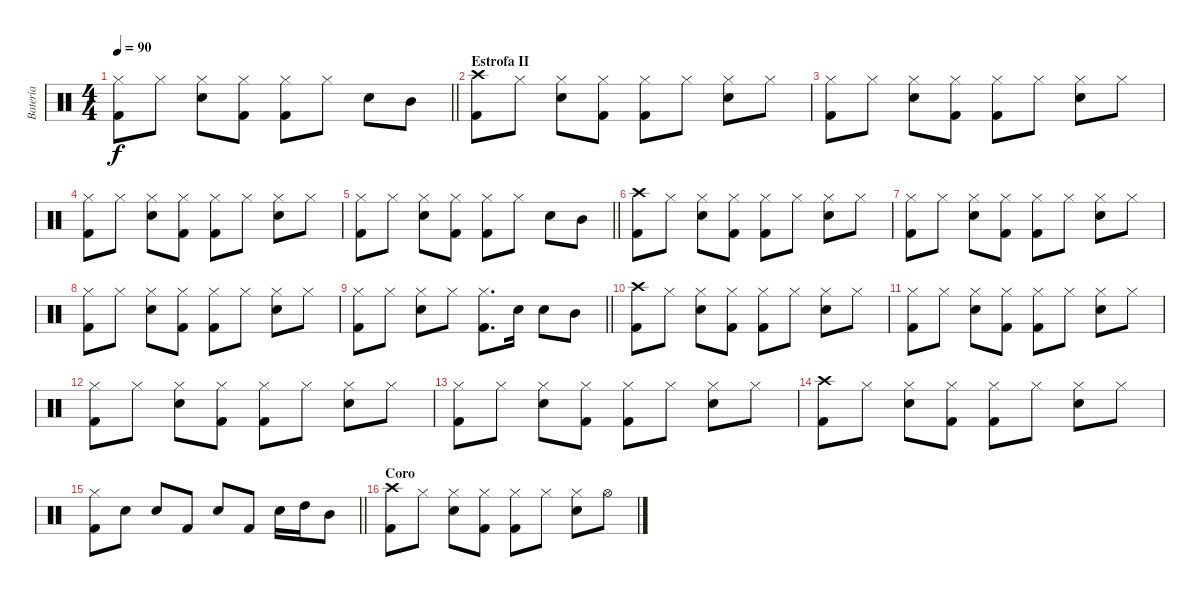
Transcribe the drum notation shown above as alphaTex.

\track ("Batería" "Batería") {instrument percussion}
\staff {score}
\articulation defaults
\ts (4 4)
\tempo 90
\clef neutral
\barLineRight lightlight
\ks c
("Kick (hit) 2" "Hi-Hat (closed)").8{dy f} "Hi-Hat (closed)".8 ("Electric Snare (hit)" "Hi-Hat (closed)").8 ("Kick (hit) 2" "Hi-Hat (closed)").8 ("Kick (hit) 2" "Hi-Hat (closed)").8 "Hi-Hat (closed)".8 "Electric Snare (hit)".8 "Mid Tom (hit)".8 |
\section ("" "Estrofa II")
("Kick (hit) 2" "Crash high (hit)").8 "Hi-Hat (closed)".8 ("Electric Snare (hit)" "Hi-Hat (closed)").8 ("Kick (hit) 2" "Hi-Hat (closed)").8 ("Kick (hit) 2" "Hi-Hat (closed)").8 "Hi-Hat (closed)".8 ("Electric Snare (hit)" "Hi-Hat (closed)").8 "Hi-Hat (closed)".8 |
("Kick (hit) 2" "Hi-Hat (closed)").8 "Hi-Hat (closed)".8 ("Electric Snare (hit)" "Hi-Hat (closed)").8 ("Kick (hit) 2" "Hi-Hat (closed)").8 ("Kick (hit) 2" "Hi-Hat (closed)").8 "Hi-Hat (closed)".8 ("Electric Snare (hit)" "Hi-Hat (closed)").8 "Hi-Hat (closed)".8 |
("Kick (hit) 2" "Hi-Hat (closed)").8 "Hi-Hat (closed)".8 ("Electric Snare (hit)" "Hi-Hat (closed)").8 ("Kick (hit) 2" "Hi-Hat (closed)").8 ("Kick (hit) 2" "Hi-Hat (closed)").8 "Hi-Hat (closed)".8 ("Electric Snare (hit)" "Hi-Hat (closed)").8 "Hi-Hat (closed)".8 |
\barLineRight lightlight
("Kick (hit) 2" "Hi-Hat (closed)").8 "Hi-Hat (closed)".8 ("Electric Snare (hit)" "Hi-Hat (closed)").8 ("Kick (hit) 2" "Hi-Hat (closed)").8 ("Kick (hit) 2" "Hi-Hat (closed)").8 "Hi-Hat (closed)".8 "Electric Snare (hit)".8 "Mid Tom (hit)".8 |
("Kick (hit) 2" "Crash high (hit)").8 "Hi-Hat (closed)".8 ("Electric Snare (hit)" "Hi-Hat (closed)").8 ("Kick (hit) 2" "Hi-Hat (closed)").8 ("Kick (hit) 2" "Hi-Hat (closed)").8 "Hi-Hat (closed)".8 ("Electric Snare (hit)" "Hi-Hat (closed)").8 "Hi-Hat (closed)".8 |
("Kick (hit) 2" "Hi-Hat (closed)").8 "Hi-Hat (closed)".8 ("Electric Snare (hit)" "Hi-Hat (closed)").8 ("Kick (hit) 2" "Hi-Hat (closed)").8 ("Kick (hit) 2" "Hi-Hat (closed)").8 "Hi-Hat (closed)".8 ("Electric Snare (hit)" "Hi-Hat (closed)").8 "Hi-Hat (closed)".8 |
("Kick (hit) 2" "Hi-Hat (closed)").8 "Hi-Hat (closed)".8 ("Electric Snare (hit)" "Hi-Hat (closed)").8 ("Kick (hit) 2" "Hi-Hat (closed)").8 ("Kick (hit) 2" "Hi-Hat (closed)").8 "Hi-Hat (closed)".8 ("Electric Snare (hit)" "Hi-Hat (closed)").8 "Hi-Hat (closed)".8 |
\barLineRight lightlight
("Kick (hit) 2" "Hi-Hat (closed)").8 "Hi-Hat (closed)".8 ("Electric Snare (hit)" "Hi-Hat (closed)").8 "Hi-Hat (closed)".8 ("Kick (hit) 2" "Hi-Hat (closed)").8{d} "Electric Snare (hit)".16 "Electric Snare (hit)".8 "Mid Tom (hit)".8 |
("Kick (hit) 2" "Crash high (hit)").8 "Hi-Hat (closed)".8 ("Electric Snare (hit)" "Hi-Hat (closed)").8 ("Kick (hit) 2" "Hi-Hat (closed)").8 ("Kick (hit) 2" "Hi-Hat (closed)").8 "Hi-Hat (closed)".8 ("Electric Snare (hit)" "Hi-Hat (closed)").8 "Hi-Hat (closed)".8 |
("Kick (hit) 2" "Hi-Hat (closed)").8 "Hi-Hat (closed)".8 ("Electric Snare (hit)" "Hi-Hat (closed)").8 ("Kick (hit) 2" "Hi-Hat (closed)").8 ("Kick (hit) 2" "Hi-Hat (closed)").8 "Hi-Hat (closed)".8 ("Electric Snare (hit)" "Hi-Hat (closed)").8 "Hi-Hat (closed)".8 |
("Kick (hit) 2" "Hi-Hat (closed)").8 "Hi-Hat (closed)".8 ("Electric Snare (hit)" "Hi-Hat (closed)").8 ("Kick (hit) 2" "Hi-Hat (closed)").8 ("Kick (hit) 2" "Hi-Hat (closed)").8 "Hi-Hat (closed)".8 ("Electric Snare (hit)" "Hi-Hat (closed)").8 "Hi-Hat (closed)".8 |
("Kick (hit) 2" "Hi-Hat (closed)").8 "Hi-Hat (closed)".8 ("Electric Snare (hit)" "Hi-Hat (closed)").8 ("Kick (hit) 2" "Hi-Hat (closed)").8 ("Kick (hit) 2" "Hi-Hat (closed)").8 "Hi-Hat (closed)".8 ("Electric Snare (hit)" "Hi-Hat (closed)").8 "Hi-Hat (closed)".8 |
("Kick (hit) 2" "Crash high (hit)").8 "Hi-Hat (closed)".8 ("Electric Snare (hit)" "Hi-Hat (closed)").8 ("Kick (hit) 2" "Hi-Hat (closed)").8 ("Kick (hit) 2" "Hi-Hat (closed)").8 "Hi-Hat (closed)".8 ("Electric Snare (hit)" "Hi-Hat (closed)").8 "Hi-Hat (closed)".8 |
\barLineRight lightlight
("Kick (hit) 2" "Hi-Hat (closed)").8 "Electric Snare (hit)".8 "Electric Snare (hit)".8 "Kick (hit) 2".8 "Electric Snare (hit)".8 "Kick (hit) 2".8 "Electric Snare (hit)".16 "High Tom (hit)".16 "Mid Tom (hit)".8 |
\section ("" "Coro")
("Kick (hit) 2" "Crash high (hit)").8 "Hi-Hat (closed)".8 ("Electric Snare (hit)" "Hi-Hat (closed)").8 ("Kick (hit) 2" "Hi-Hat (closed)").8 ("Kick (hit) 2" "Hi-Hat (closed)").8 "Hi-Hat (closed)".8 ("Electric Snare (hit)" "Hi-Hat (closed)").8 "Hi-Hat (open)".8
